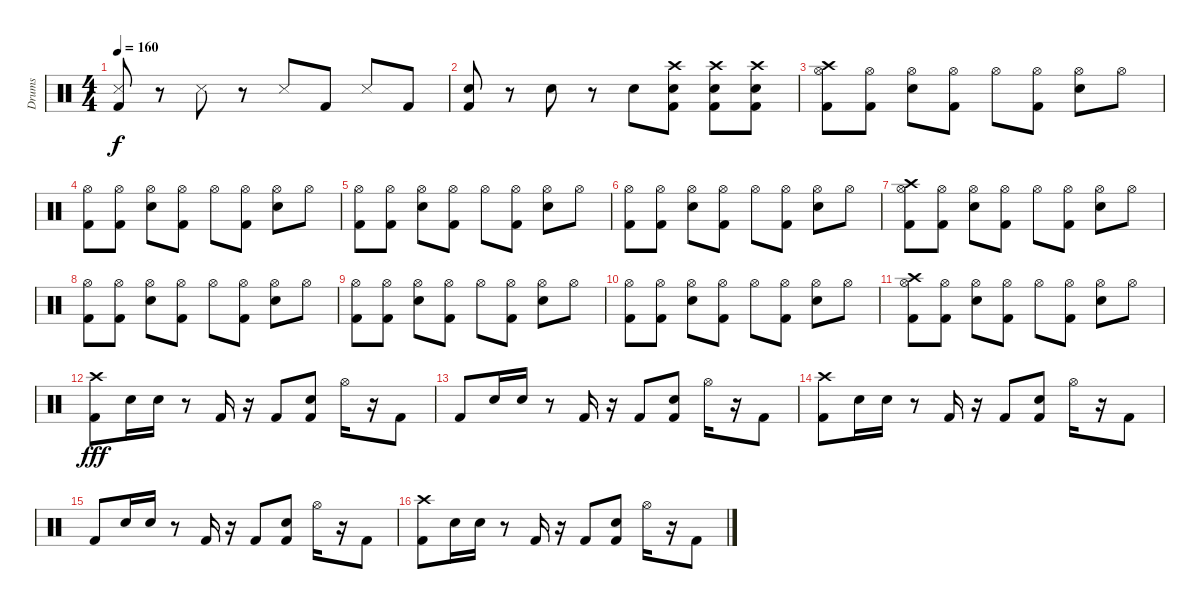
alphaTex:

\track ("Drums" "Drums") {instrument percussion}
\staff {score}
\articulation defaults
\ts (4 4)
\tempo 160
\clef neutral
\ks c
("Kick (hit) 2" "Metronome (hit)").8{dy f} r.8 "Metronome (hit)".8 r.8 "Metronome (hit)".8 "Kick (hit) 2".8 "Metronome (hit)".8 "Kick (hit) 2".8 |
("Kick (hit) 2" "Electric Snare (hit)").8 r.8 "Electric Snare (hit)".8 r.8 "Electric Snare (hit)".8 ("Kick (hit) 2" "Electric Snare (hit)" "Crash high (hit)").8 ("Kick (hit) 2" "Electric Snare (hit)" "Crash high (hit)").8 ("Kick (hit) 2" "Electric Snare (hit)" "Crash high (hit)").8 |
("Kick (hit) 2" "Crash high (hit)" "Hi-Hat (open)").8 ("Kick (hit) 2" "Hi-Hat (open)").8 ("Electric Snare (hit)" "Hi-Hat (open)").8 ("Kick (hit) 2" "Hi-Hat (open)").8 "Hi-Hat (open)".8 ("Kick (hit) 2" "Hi-Hat (open)").8 ("Electric Snare (hit)" "Hi-Hat (open)").8 "Hi-Hat (open)".8 |
("Kick (hit) 2" "Hi-Hat (open)").8 ("Kick (hit) 2" "Hi-Hat (open)").8 ("Electric Snare (hit)" "Hi-Hat (open)").8 ("Kick (hit) 2" "Hi-Hat (open)").8 "Hi-Hat (open)".8 ("Kick (hit) 2" "Hi-Hat (open)").8 ("Electric Snare (hit)" "Hi-Hat (open)").8 "Hi-Hat (open)".8 |
("Kick (hit) 2" "Hi-Hat (open)").8 ("Kick (hit) 2" "Hi-Hat (open)").8 ("Electric Snare (hit)" "Hi-Hat (open)").8 ("Kick (hit) 2" "Hi-Hat (open)").8 "Hi-Hat (open)".8 ("Kick (hit) 2" "Hi-Hat (open)").8 ("Electric Snare (hit)" "Hi-Hat (open)").8 "Hi-Hat (open)".8 |
("Kick (hit) 2" "Hi-Hat (open)").8 ("Kick (hit) 2" "Hi-Hat (open)").8 ("Electric Snare (hit)" "Hi-Hat (open)").8 ("Kick (hit) 2" "Hi-Hat (open)").8 "Hi-Hat (open)".8 ("Kick (hit) 2" "Hi-Hat (open)").8 ("Electric Snare (hit)" "Hi-Hat (open)").8 "Hi-Hat (open)".8 |
("Kick (hit) 2" "Crash high (hit)" "Hi-Hat (open)").8 ("Kick (hit) 2" "Hi-Hat (open)").8 ("Electric Snare (hit)" "Hi-Hat (open)").8 ("Kick (hit) 2" "Hi-Hat (open)").8 "Hi-Hat (open)".8 ("Kick (hit) 2" "Hi-Hat (open)").8 ("Electric Snare (hit)" "Hi-Hat (open)").8 "Hi-Hat (open)".8 |
("Kick (hit) 2" "Hi-Hat (open)").8 ("Kick (hit) 2" "Hi-Hat (open)").8 ("Electric Snare (hit)" "Hi-Hat (open)").8 ("Kick (hit) 2" "Hi-Hat (open)").8 "Hi-Hat (open)".8 ("Kick (hit) 2" "Hi-Hat (open)").8 ("Electric Snare (hit)" "Hi-Hat (open)").8 "Hi-Hat (open)".8 |
("Kick (hit) 2" "Hi-Hat (open)").8 ("Kick (hit) 2" "Hi-Hat (open)").8 ("Electric Snare (hit)" "Hi-Hat (open)").8 ("Kick (hit) 2" "Hi-Hat (open)").8 "Hi-Hat (open)".8 ("Kick (hit) 2" "Hi-Hat (open)").8 ("Electric Snare (hit)" "Hi-Hat (open)").8 "Hi-Hat (open)".8 |
("Kick (hit) 2" "Hi-Hat (open)").8 ("Kick (hit) 2" "Hi-Hat (open)").8 ("Electric Snare (hit)" "Hi-Hat (open)").8 ("Kick (hit) 2" "Hi-Hat (open)").8 "Hi-Hat (open)".8 ("Kick (hit) 2" "Hi-Hat (open)").8 ("Electric Snare (hit)" "Hi-Hat (open)").8 "Hi-Hat (open)".8 |
("Kick (hit) 2" "Crash high (hit)" "Hi-Hat (open)").8 ("Kick (hit) 2" "Hi-Hat (open)").8 ("Electric Snare (hit)" "Hi-Hat (open)").8 ("Kick (hit) 2" "Hi-Hat (open)").8 "Hi-Hat (open)".8 ("Kick (hit) 2" "Hi-Hat (open)").8 ("Electric Snare (hit)" "Hi-Hat (open)").8 "Hi-Hat (open)".8 |
("Kick (hit) 2" "Crash high (hit)").8{dy fff} "Electric Snare (hit)".16 "Electric Snare (hit)".16 r.8 "Kick (hit) 2".16 r.16 "Kick (hit) 2".8 ("Kick (hit) 2" "Electric Snare (hit)").8 "Hi-Hat (open)".16 r.16 "Kick (hit) 2".8 |
"Kick (hit) 2".8 "Electric Snare (hit)".16 "Electric Snare (hit)".16 r.8 "Kick (hit) 2".16 r.16 "Kick (hit) 2".8 ("Kick (hit) 2" "Electric Snare (hit)").8 "Hi-Hat (open)".16 r.16 "Kick (hit) 2".8 |
("Kick (hit) 2" "Crash high (hit)").8 "Electric Snare (hit)".16 "Electric Snare (hit)".16 r.8 "Kick (hit) 2".16 r.16 "Kick (hit) 2".8 ("Kick (hit) 2" "Electric Snare (hit)").8 "Hi-Hat (open)".16 r.16 "Kick (hit) 2".8 |
"Kick (hit) 2".8 "Electric Snare (hit)".16 "Electric Snare (hit)".16 r.8 "Kick (hit) 2".16 r.16 "Kick (hit) 2".8 ("Kick (hit) 2" "Electric Snare (hit)").8 "Hi-Hat (open)".16 r.16 "Kick (hit) 2".8 |
("Kick (hit) 2" "Crash high (hit)").8 "Electric Snare (hit)".16 "Electric Snare (hit)".16 r.8 "Kick (hit) 2".16 r.16 "Kick (hit) 2".8 ("Kick (hit) 2" "Electric Snare (hit)").8 "Hi-Hat (open)".16 r.16 "Kick (hit) 2".8
